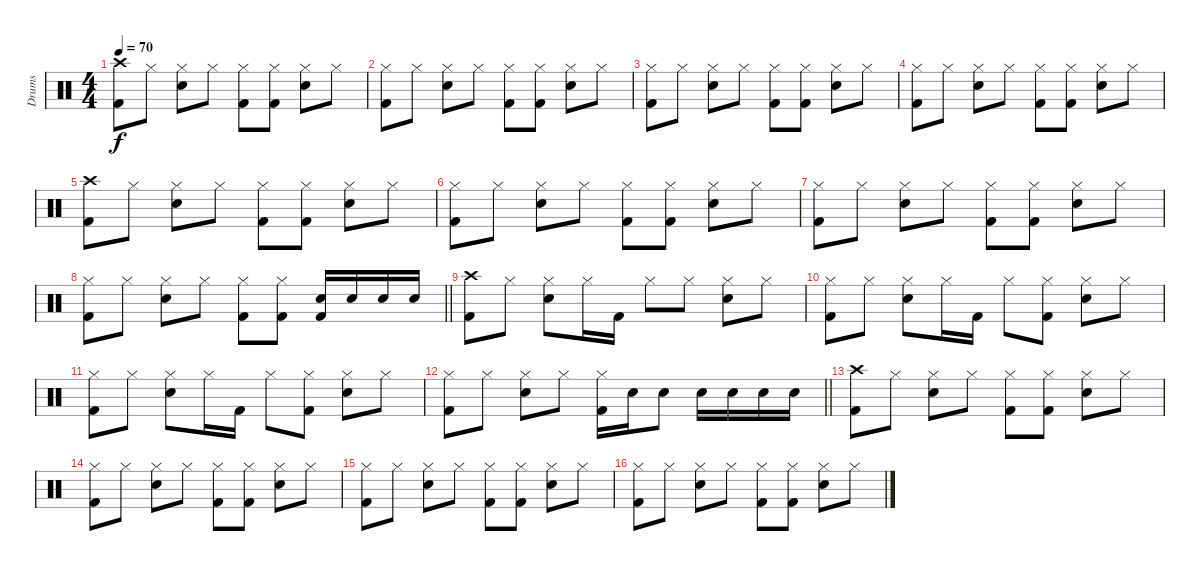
\track ("Drums" "Drums") {instrument percussion}
\staff {score}
\articulation defaults
\ts (4 4)
\tempo 70
\clef neutral
\ks c
("Crash high (hit)" "Kick (hit) 2").8{dy f} "Hi-Hat (closed)".8 ("Hi-Hat (closed)" "Electric Snare (hit)").8 "Hi-Hat (closed)".8 ("Hi-Hat (closed)" "Kick (hit) 2").8 ("Hi-Hat (closed)" "Kick (hit) 2").8 ("Hi-Hat (closed)" "Electric Snare (hit)").8 "Hi-Hat (closed)".8 |
("Hi-Hat (closed)" "Kick (hit) 2").8 "Hi-Hat (closed)".8 ("Hi-Hat (closed)" "Electric Snare (hit)").8 "Hi-Hat (closed)".8 ("Hi-Hat (closed)" "Kick (hit) 2").8 ("Hi-Hat (closed)" "Kick (hit) 2").8 ("Hi-Hat (closed)" "Electric Snare (hit)").8 "Hi-Hat (closed)".8 |
("Hi-Hat (closed)" "Kick (hit) 2").8 "Hi-Hat (closed)".8 ("Hi-Hat (closed)" "Electric Snare (hit)").8 "Hi-Hat (closed)".8 ("Hi-Hat (closed)" "Kick (hit) 2").8 ("Hi-Hat (closed)" "Kick (hit) 2").8 ("Hi-Hat (closed)" "Electric Snare (hit)").8 "Hi-Hat (closed)".8 |
("Hi-Hat (closed)" "Kick (hit) 2").8 "Hi-Hat (closed)".8 ("Hi-Hat (closed)" "Electric Snare (hit)").8 "Hi-Hat (closed)".8 ("Hi-Hat (closed)" "Kick (hit) 2").8 ("Hi-Hat (closed)" "Kick (hit) 2").8 ("Hi-Hat (closed)" "Electric Snare (hit)").8 "Hi-Hat (closed)".8 |
("Crash high (hit)" "Kick (hit) 2").8 "Hi-Hat (closed)".8 ("Hi-Hat (closed)" "Electric Snare (hit)").8 "Hi-Hat (closed)".8 ("Hi-Hat (closed)" "Kick (hit) 2").8 ("Hi-Hat (closed)" "Kick (hit) 2").8 ("Hi-Hat (closed)" "Electric Snare (hit)").8 "Hi-Hat (closed)".8 |
("Hi-Hat (closed)" "Kick (hit) 2").8 "Hi-Hat (closed)".8 ("Hi-Hat (closed)" "Electric Snare (hit)").8 "Hi-Hat (closed)".8 ("Hi-Hat (closed)" "Kick (hit) 2").8 ("Hi-Hat (closed)" "Kick (hit) 2").8 ("Hi-Hat (closed)" "Electric Snare (hit)").8 "Hi-Hat (closed)".8 |
("Hi-Hat (closed)" "Kick (hit) 2").8 "Hi-Hat (closed)".8 ("Hi-Hat (closed)" "Electric Snare (hit)").8 "Hi-Hat (closed)".8 ("Hi-Hat (closed)" "Kick (hit) 2").8 ("Hi-Hat (closed)" "Kick (hit) 2").8 ("Hi-Hat (closed)" "Electric Snare (hit)").8 "Hi-Hat (closed)".8 |
\barLineRight lightlight
("Hi-Hat (closed)" "Kick (hit) 2").8 "Hi-Hat (closed)".8 ("Hi-Hat (closed)" "Electric Snare (hit)").8 "Hi-Hat (closed)".8 ("Hi-Hat (closed)" "Kick (hit) 2").8 ("Hi-Hat (closed)" "Kick (hit) 2").8 ("Electric Snare (hit)" "Kick (hit) 2").16 "Electric Snare (hit)".16 "Electric Snare (hit)".16 "Electric Snare (hit)".16 |
("Crash high (hit)" "Kick (hit) 2").8 "Hi-Hat (closed)".8 ("Hi-Hat (closed)" "Electric Snare (hit)").8 "Hi-Hat (closed)".16 "Kick (hit) 2".16 "Hi-Hat (closed)".8 "Hi-Hat (closed)".8 ("Hi-Hat (closed)" "Electric Snare (hit)").8 "Hi-Hat (closed)".8 |
("Hi-Hat (closed)" "Kick (hit) 2").8 "Hi-Hat (closed)".8 ("Hi-Hat (closed)" "Electric Snare (hit)").8 "Hi-Hat (closed)".16 "Kick (hit) 2".16 "Hi-Hat (closed)".8 ("Hi-Hat (closed)" "Kick (hit) 2").8 ("Hi-Hat (closed)" "Electric Snare (hit)").8 "Hi-Hat (closed)".8 |
("Hi-Hat (closed)" "Kick (hit) 2").8 "Hi-Hat (closed)".8 ("Hi-Hat (closed)" "Electric Snare (hit)").8 "Hi-Hat (closed)".16 "Kick (hit) 2".16 "Hi-Hat (closed)".8 ("Hi-Hat (closed)" "Kick (hit) 2").8 ("Hi-Hat (closed)" "Electric Snare (hit)").8 "Hi-Hat (closed)".8 |
\barLineRight lightlight
("Hi-Hat (closed)" "Kick (hit) 2").8 "Hi-Hat (closed)".8 ("Hi-Hat (closed)" "Electric Snare (hit)").8 "Hi-Hat (closed)".8 ("Hi-Hat (closed)" "Kick (hit) 2").16 "Electric Snare (hit)".16 "Electric Snare (hit)".8 "Electric Snare (hit)".16 "Electric Snare (hit)".16 "Electric Snare (hit)".16 "Electric Snare (hit)".16 |
("Crash high (hit)" "Kick (hit) 2").8 "Hi-Hat (closed)".8 ("Hi-Hat (closed)" "Electric Snare (hit)").8 "Hi-Hat (closed)".8 ("Hi-Hat (closed)" "Kick (hit) 2").8 ("Hi-Hat (closed)" "Kick (hit) 2").8 ("Hi-Hat (closed)" "Electric Snare (hit)").8 "Hi-Hat (closed)".8 |
("Hi-Hat (closed)" "Kick (hit) 2").8 "Hi-Hat (closed)".8 ("Hi-Hat (closed)" "Electric Snare (hit)").8 "Hi-Hat (closed)".8 ("Hi-Hat (closed)" "Kick (hit) 2").8 ("Hi-Hat (closed)" "Kick (hit) 2").8 ("Hi-Hat (closed)" "Electric Snare (hit)").8 "Hi-Hat (closed)".8 |
("Hi-Hat (closed)" "Kick (hit) 2").8 "Hi-Hat (closed)".8 ("Hi-Hat (closed)" "Electric Snare (hit)").8 "Hi-Hat (closed)".8 ("Hi-Hat (closed)" "Kick (hit) 2").8 ("Hi-Hat (closed)" "Kick (hit) 2").8 ("Hi-Hat (closed)" "Electric Snare (hit)").8 "Hi-Hat (closed)".8 |
("Hi-Hat (closed)" "Kick (hit) 2").8 "Hi-Hat (closed)".8 ("Hi-Hat (closed)" "Electric Snare (hit)").8 "Hi-Hat (closed)".8 ("Hi-Hat (closed)" "Kick (hit) 2").8 ("Hi-Hat (closed)" "Kick (hit) 2").8 ("Hi-Hat (closed)" "Electric Snare (hit)").8 "Hi-Hat (closed)".8
